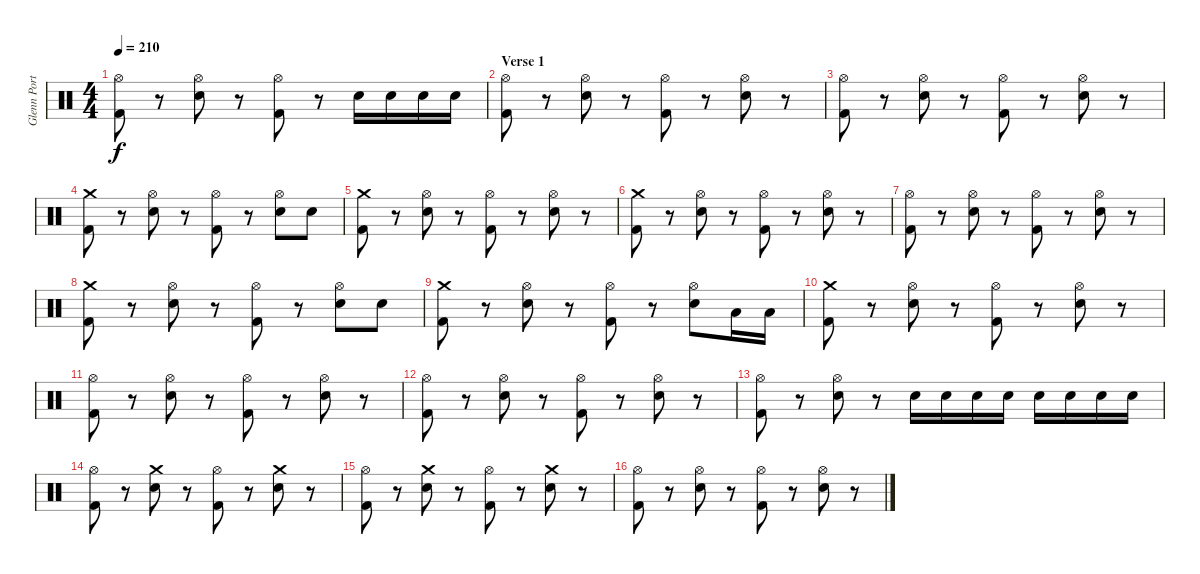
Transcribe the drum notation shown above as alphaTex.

\track ("Glenn Porter - Drums" "Glenn Port") {instrument percussion}
\staff {score}
\articulation defaults
\ts (4 4)
\tempo 210
\clef neutral
\ks c
("Hi-Hat (open)" "Kick (hit) 2").8{dy f} r.8 ("Hi-Hat (open)" "Electric Snare (hit)").8 r.8 ("Hi-Hat (open)" "Kick (hit) 2").8 r.8 "Electric Snare (hit)".16 "Electric Snare (hit)".16 "Electric Snare (hit)".16 "Electric Snare (hit)".16 |
\section ("" "Verse 1")
("Hi-Hat (open)" "Kick (hit) 2").8 r.8 ("Hi-Hat (open)" "Electric Snare (hit)").8 r.8 ("Hi-Hat (open)" "Kick (hit) 2").8 r.8 ("Hi-Hat (open)" "Electric Snare (hit)").8 r.8 |
("Hi-Hat (open)" "Kick (hit) 2").8 r.8 ("Hi-Hat (open)" "Electric Snare (hit)").8 r.8 ("Hi-Hat (open)" "Kick (hit) 2").8 r.8 ("Hi-Hat (open)" "Electric Snare (hit)").8 r.8 |
("Crash medium (hit)" "Kick (hit) 2").8 r.8 ("Hi-Hat (open)" "Electric Snare (hit)").8 r.8 ("Hi-Hat (open)" "Kick (hit) 2").8 r.8 ("Hi-Hat (open)" "Electric Snare (hit)").8 "Electric Snare (hit)".8 |
("Crash medium (hit)" "Kick (hit) 2").8 r.8 ("Hi-Hat (open)" "Electric Snare (hit)").8 r.8 ("Hi-Hat (open)" "Kick (hit) 2").8 r.8 ("Hi-Hat (open)" "Electric Snare (hit)").8 r.8 |
("Crash medium (hit)" "Kick (hit) 2").8 r.8 ("Hi-Hat (open)" "Electric Snare (hit)").8 r.8 ("Hi-Hat (open)" "Kick (hit) 2").8 r.8 ("Hi-Hat (open)" "Electric Snare (hit)").8 r.8 |
("Hi-Hat (open)" "Kick (hit) 2").8 r.8 ("Hi-Hat (open)" "Electric Snare (hit)").8 r.8 ("Hi-Hat (open)" "Kick (hit) 2").8 r.8 ("Hi-Hat (open)" "Electric Snare (hit)").8 r.8 |
("Crash medium (hit)" "Kick (hit) 2").8 r.8 ("Hi-Hat (open)" "Electric Snare (hit)").8 r.8 ("Hi-Hat (open)" "Kick (hit) 2").8 r.8 ("Hi-Hat (open)" "Electric Snare (hit)").8 "Electric Snare (hit)".8 |
("Crash medium (hit)" "Kick (hit) 2").8 r.8 ("Hi-Hat (open)" "Electric Snare (hit)").8 r.8 ("Hi-Hat (open)" "Kick (hit) 2").8 r.8 ("Hi-Hat (open)" "Electric Snare (hit)").8 "Low Tom (hit)".16 "Low Tom (hit)".16 |
("Crash medium (hit)" "Kick (hit) 2").8 r.8 ("Hi-Hat (open)" "Electric Snare (hit)").8 r.8 ("Hi-Hat (open)" "Kick (hit) 2").8 r.8 ("Hi-Hat (open)" "Electric Snare (hit)").8 r.8 |
("Hi-Hat (open)" "Kick (hit) 2").8 r.8 ("Hi-Hat (open)" "Electric Snare (hit)").8 r.8 ("Hi-Hat (open)" "Kick (hit) 2").8 r.8 ("Hi-Hat (open)" "Electric Snare (hit)").8 r.8 |
("Hi-Hat (open)" "Kick (hit) 2").8 r.8 ("Hi-Hat (open)" "Electric Snare (hit)").8 r.8 ("Hi-Hat (open)" "Kick (hit) 2").8 r.8 ("Hi-Hat (open)" "Electric Snare (hit)").8 r.8 |
("Hi-Hat (open)" "Kick (hit) 2").8 r.8 ("Hi-Hat (open)" "Electric Snare (hit)").8 r.8 "Electric Snare (hit)".16 "Electric Snare (hit)".16 "Electric Snare (hit)".16 "Electric Snare (hit)".16 "Electric Snare (hit)".16 "Electric Snare (hit)".16 "Electric Snare (hit)".16 "Electric Snare (hit)".16 |
("Hi-Hat (open)" "Kick (hit) 2").8 r.8 ("Crash medium (hit)" "Electric Snare (hit)").8 r.8 ("Hi-Hat (open)" "Kick (hit) 2").8 r.8 ("Crash medium (hit)" "Electric Snare (hit)").8 r.8 |
("Hi-Hat (open)" "Kick (hit) 2").8 r.8 ("Crash medium (hit)" "Electric Snare (hit)").8 r.8 ("Hi-Hat (open)" "Kick (hit) 2").8 r.8 ("Crash medium (hit)" "Electric Snare (hit)").8 r.8 |
("Hi-Hat (open)" "Kick (hit) 2").8 r.8 ("Hi-Hat (open)" "Electric Snare (hit)").8 r.8 ("Hi-Hat (open)" "Kick (hit) 2").8 r.8 ("Hi-Hat (open)" "Electric Snare (hit)").8 r.8
